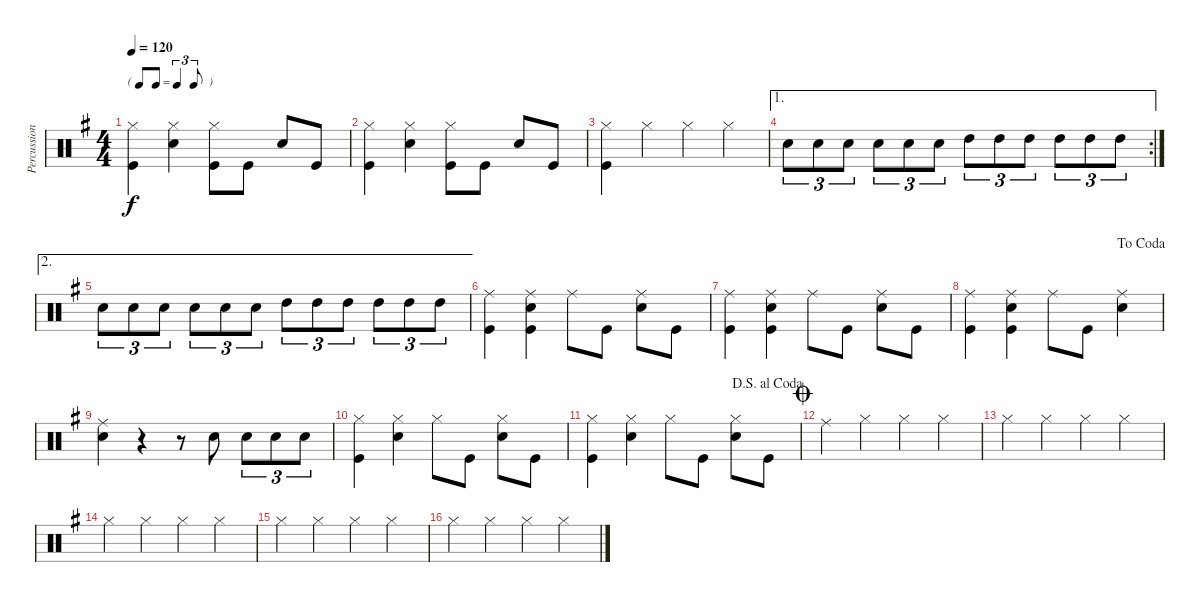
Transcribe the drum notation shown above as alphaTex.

\track ("Percussion" "Percussion") {instrument percussion}
\staff {score}
\articulation defaults
\ts (4 4)
\tf triplet8th
\tempo 120
\clef neutral
\ks g
("Hi-Hat (closed)" "Kick (hit)").4{dy f} ("Hi-Hat (closed)" "Snare (hit) 2").4 ("Hi-Hat (closed)" "Kick (hit)").8 "Kick (hit)".8 "Snare (hit) 2".8 "Kick (hit)".8 |
("Hi-Hat (closed)" "Kick (hit)").4 ("Hi-Hat (closed)" "Snare (hit) 2").4 ("Hi-Hat (closed)" "Kick (hit)").8 "Kick (hit)".8 "Snare (hit) 2".8 "Kick (hit)".8 |
("Hi-Hat (closed)" "Kick (hit)").4 "Hi-Hat (closed)".4 "Hi-Hat (closed)".4 "Hi-Hat (closed)".4 |
\ae 1
\rc 2 "Snare (hit) 2".8{tu (3 2)} "Snare (hit) 2".8{tu (3 2)} "Snare (hit) 2".8{tu (3 2)} "Snare (hit) 2".8{tu (3 2)} "Snare (hit) 2".8{tu (3 2)} "Snare (hit) 2".8{tu (3 2)} "High Tom (hit)".8{tu (3 2)} "High Tom (hit)".8{tu (3 2)} "High Tom (hit)".8{tu (3 2)} "High Tom (hit)".8{tu (3 2)} "High Tom (hit)".8{tu (3 2)} "High Tom (hit)".8{tu (3 2)}
|
\ae 2 "Snare (hit) 2".8{tu (3 2)} "Snare (hit) 2".8{tu (3 2)} "Snare (hit) 2".8{tu (3 2)} "Snare (hit) 2".8{tu (3 2)} "Snare (hit) 2".8{tu (3 2)} "Snare (hit) 2".8{tu (3 2)} "High Tom (hit)".8{tu (3 2)} "High Tom (hit)".8{tu (3 2)} "High Tom (hit)".8{tu (3 2)} "High Tom (hit)".8{tu (3 2)} "High Tom (hit)".8{tu (3 2)} "High Tom (hit)".8{tu (3 2)}
|
("Ride (middle)" "Kick (hit)").4 ("Ride (middle)" "Snare (hit) 2" "Kick (hit)").4 "Ride (middle)".8 "Kick (hit)".8 ("Ride (middle)" "Snare (hit) 2").8 "Kick (hit)".8 |
("Ride (middle)" "Kick (hit)").4 ("Ride (middle)" "Snare (hit) 2" "Kick (hit)").4 "Ride (middle)".8 "Kick (hit)".8 ("Ride (middle)" "Snare (hit) 2").8 "Kick (hit)".8 |
\jump dacoda
("Ride (middle)" "Kick (hit)").4 ("Ride (middle)" "Snare (hit) 2" "Kick (hit)").4 "Ride (middle)".8 "Kick (hit)".8 ("Ride (middle)" "Snare (hit) 2").4 |
("Ride (middle)" "Snare (hit)").4 r.4 r.8 "Snare (hit) 2".8 "Snare (hit) 2".8{tu (3 2)} "Snare (hit) 2".8{tu (3 2)} "Snare (hit) 2".8{tu (3 2)} |
("Hi-Hat (closed)" "Kick (hit)").4 ("Hi-Hat (closed)" "Snare (hit) 2").4 "Hi-Hat (closed)".8 "Kick (hit)".8 ("Hi-Hat (closed)" "Snare (hit) 2").8 "Kick (hit)".8 |
\jump dalsegnoalcoda
("Hi-Hat (closed)" "Kick (hit)").4 ("Hi-Hat (closed)" "Snare (hit) 2").4 "Hi-Hat (closed)".8 "Kick (hit)".8 ("Hi-Hat (closed)" "Snare (hit) 2").8 "Kick (hit)".8 |
\jump coda "Ride (middle)".4 "Hi-Hat (closed)".4 "Hi-Hat (closed)".4 "Hi-Hat (closed)".4
|
"Hi-Hat (closed)".4 "Hi-Hat (closed)".4 "Hi-Hat (closed)".4 "Hi-Hat (closed)".4 |
"Hi-Hat (closed)".4 "Hi-Hat (closed)".4 "Hi-Hat (closed)".4 "Hi-Hat (closed)".4 |
"Hi-Hat (closed)".4 "Hi-Hat (closed)".4 "Hi-Hat (closed)".4 "Hi-Hat (closed)".4 |
"Hi-Hat (closed)".4 "Hi-Hat (closed)".4 "Hi-Hat (closed)".4 "Hi-Hat (closed)".4
